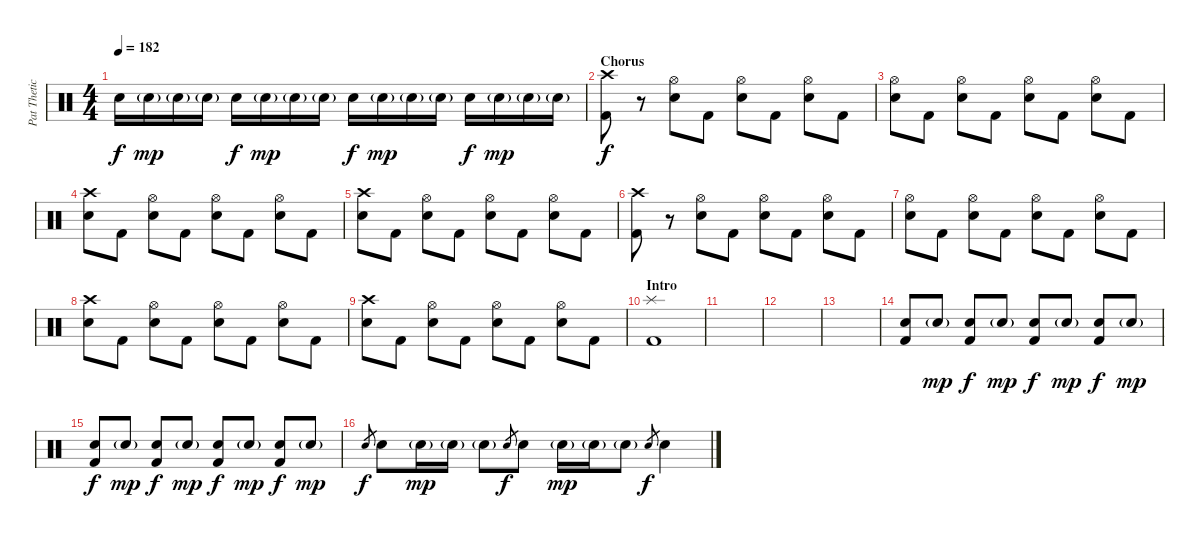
\track ("Pat Thetic - Drums" "Pat Thetic") {instrument percussion}
\staff {score}
\articulation defaults
\ts (4 4)
\tempo 182
\clef neutral
\ks c "Electric Snare (hit)".16{dy f} "Snare (hit) 2"{g}.16{dy mp} "Snare (hit) 2"{g}.16 "Snare (hit) 2"{g}.16 "Electric Snare (hit)".16{dy f} "Snare (hit) 2"{g}.16{dy mp} "Snare (hit) 2"{g}.16 "Snare (hit) 2"{g}.16 "Electric Snare (hit)".16{dy f} "Snare (hit) 2"{g}.16{dy mp} "Snare (hit) 2"{g}.16 "Snare (hit) 2"{g}.16 "Electric Snare (hit)".16{dy f} "Snare (hit) 2"{g}.16{dy mp} "Snare (hit) 2"{g}.16 "Snare (hit) 2"{g}.16
|
\section ("" "Chorus")
("Crash high (hit)" "Kick (hit) 2").8{dy f} r.8 ("Hi-Hat (open)" "Electric Snare (hit)").8 "Kick (hit) 2".8 ("Hi-Hat (open)" "Electric Snare (hit)").8 "Kick (hit) 2".8 ("Hi-Hat (open)" "Electric Snare (hit)").8 "Kick (hit) 2".8 |
("Hi-Hat (open)" "Electric Snare (hit)").8 "Kick (hit) 2".8 ("Hi-Hat (open)" "Electric Snare (hit)").8 "Kick (hit) 2".8 ("Hi-Hat (open)" "Electric Snare (hit)").8 "Kick (hit) 2".8 ("Hi-Hat (open)" "Electric Snare (hit)").8 "Kick (hit) 2".8 |
("Crash high (hit)" "Electric Snare (hit)").8 "Kick (hit) 2".8 ("Hi-Hat (open)" "Electric Snare (hit)").8 "Kick (hit) 2".8 ("Hi-Hat (open)" "Electric Snare (hit)").8 "Kick (hit) 2".8 ("Hi-Hat (open)" "Electric Snare (hit)").8 "Kick (hit) 2".8 |
("Crash high (hit)" "Electric Snare (hit)").8 "Kick (hit) 2".8 ("Hi-Hat (open)" "Electric Snare (hit)").8 "Kick (hit) 2".8 ("Hi-Hat (open)" "Electric Snare (hit)").8 "Kick (hit) 2".8 ("Hi-Hat (open)" "Electric Snare (hit)").8 "Kick (hit) 2".8 |
("Crash high (hit)" "Kick (hit) 2").8 r.8 ("Hi-Hat (open)" "Electric Snare (hit)").8 "Kick (hit) 2".8 ("Hi-Hat (open)" "Electric Snare (hit)").8 "Kick (hit) 2".8 ("Hi-Hat (open)" "Electric Snare (hit)").8 "Kick (hit) 2".8 |
("Hi-Hat (open)" "Electric Snare (hit)").8 "Kick (hit) 2".8 ("Hi-Hat (open)" "Electric Snare (hit)").8 "Kick (hit) 2".8 ("Hi-Hat (open)" "Electric Snare (hit)").8 "Kick (hit) 2".8 ("Hi-Hat (open)" "Electric Snare (hit)").8 "Kick (hit) 2".8 |
("Crash high (hit)" "Electric Snare (hit)").8 "Kick (hit) 2".8 ("Hi-Hat (open)" "Electric Snare (hit)").8 "Kick (hit) 2".8 ("Hi-Hat (open)" "Electric Snare (hit)").8 "Kick (hit) 2".8 ("Hi-Hat (open)" "Electric Snare (hit)").8 "Kick (hit) 2".8 |
("Crash high (hit)" "Electric Snare (hit)").8 "Kick (hit) 2".8 ("Hi-Hat (open)" "Electric Snare (hit)").8 "Kick (hit) 2".8 ("Hi-Hat (open)" "Electric Snare (hit)").8 "Kick (hit) 2".8 ("Hi-Hat (open)" "Electric Snare (hit)").8 "Kick (hit) 2".8 |
\section ("" "Intro")
("Splash (hit)" "Kick (hit) 2").1 |
|
|
|
("Electric Snare (hit)" "Kick (hit) 2").8 "Electric Snare (hit)"{g}.8{dy mp} ("Electric Snare (hit)" "Kick (hit) 2").8{dy f} "Electric Snare (hit)"{g}.8{dy mp} ("Electric Snare (hit)" "Kick (hit) 2").8{dy f} "Electric Snare (hit)"{g}.8{dy mp} ("Electric Snare (hit)" "Kick (hit) 2").8{dy f} "Electric Snare (hit)"{g}.8{dy mp} |
("Electric Snare (hit)" "Kick (hit) 2").8{dy f} "Electric Snare (hit)"{g}.8{dy mp} ("Electric Snare (hit)" "Kick (hit) 2").8{dy f} "Electric Snare (hit)"{g}.8{dy mp} ("Electric Snare (hit)" "Kick (hit) 2").8{dy f} "Electric Snare (hit)"{g}.8{dy mp} ("Electric Snare (hit)" "Kick (hit) 2").8{dy f} "Electric Snare (hit)"{g}.8{dy mp} |
"Electric Snare (hit)".8{gr dy f} "Electric Snare (hit)".8 "Snare (hit) 2"{g}.16{dy mp} "Snare (hit) 2"{g}.16 "Snare (hit) 2"{g}.8 "Electric Snare (hit)".8{gr dy f} "Electric Snare (hit)".8 "Snare (hit) 2"{g}.16{dy mp} "Snare (hit) 2"{g}.16 "Snare (hit) 2"{g}.8 "Electric Snare (hit)".8{gr dy f} "Electric Snare (hit)".4
